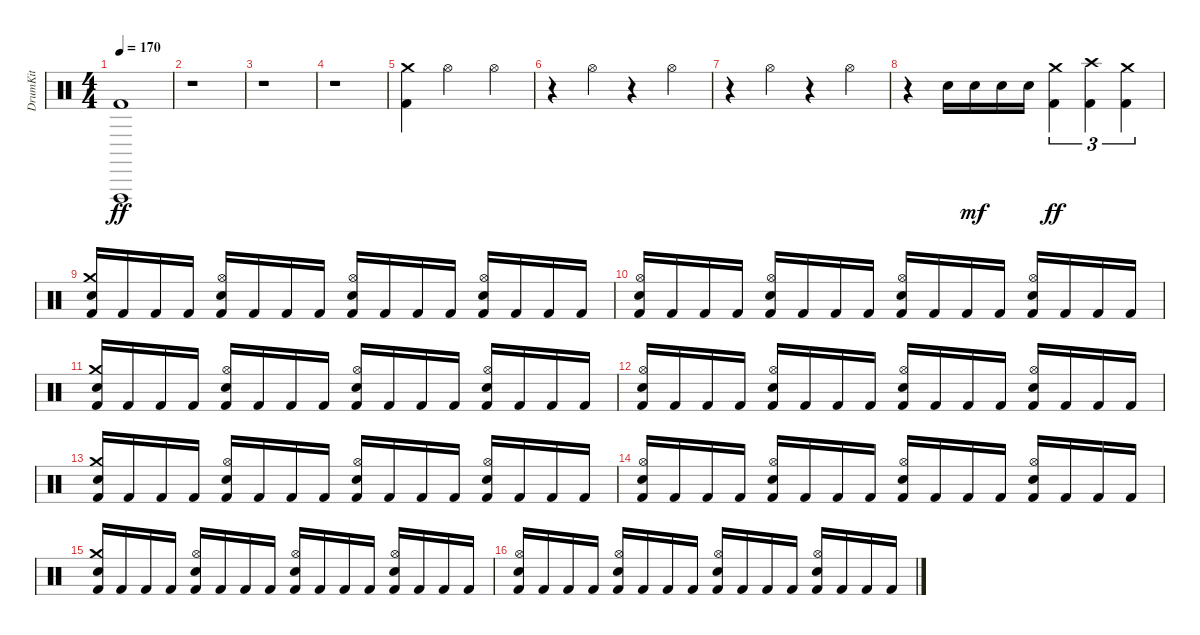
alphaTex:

\track ("DrumKit" "DrumKit") {instrument percussion}
\staff {score}
\articulation defaults
\ts (4 4)
\tempo 170
\clef neutral
\ks c
("Kick (hit) 2" "Vibraslap (hit)").1{dy ff} |
r.1 |
r.1 |
r.1 |
("Kick (hit) 2" "Crash medium (hit)").4 "Hi-Hat (open)".2 "Hi-Hat (open)".4 |
r.4 "Hi-Hat (open)".4 r.4 "Hi-Hat (open)".4 |
r.4 "Hi-Hat (open)".4 r.4 "Hi-Hat (open)".4 |
r.4 "Snare (hit) 2".16 "Snare (hit) 2".16{dy mf} "Snare (hit) 2".16 "Snare (hit) 2".16 ("Kick (hit) 2" "Crash medium (hit)").4{tu (3 2) dy ff} ("Kick (hit) 2" "Crash high (hit)").4{tu (3 2)} ("Kick (hit) 2" "Crash medium (hit)").4{tu (3 2)} |
("Kick (hit) 2" "Snare (hit) 2" "Crash medium (hit)").16 "Kick (hit) 2".16 "Kick (hit) 2".16 "Kick (hit) 2".16 ("Kick (hit) 2" "Snare (hit) 2" "Hi-Hat (open)").16 "Kick (hit) 2".16 "Kick (hit) 2".16 "Kick (hit) 2".16 ("Kick (hit) 2" "Snare (hit) 2" "Hi-Hat (open)").16 "Kick (hit) 2".16 "Kick (hit) 2".16 "Kick (hit) 2".16 ("Kick (hit) 2" "Snare (hit) 2" "Hi-Hat (open)").16 "Kick (hit) 2".16 "Kick (hit) 2".16 "Kick (hit) 2".16 |
("Kick (hit) 2" "Snare (hit) 2" "Hi-Hat (open)").16 "Kick (hit) 2".16 "Kick (hit) 2".16 "Kick (hit) 2".16 ("Kick (hit) 2" "Snare (hit) 2" "Hi-Hat (open)").16 "Kick (hit) 2".16 "Kick (hit) 2".16 "Kick (hit) 2".16 ("Kick (hit) 2" "Snare (hit) 2" "Hi-Hat (open)").16 "Kick (hit) 2".16 "Kick (hit) 2".16 "Kick (hit) 2".16 ("Kick (hit) 2" "Snare (hit) 2" "Hi-Hat (open)").16 "Kick (hit) 2".16 "Kick (hit) 2".16 "Kick (hit) 2".16 |
("Kick (hit) 2" "Snare (hit) 2" "Crash medium (hit)").16 "Kick (hit) 2".16 "Kick (hit) 2".16 "Kick (hit) 2".16 ("Kick (hit) 2" "Snare (hit) 2" "Hi-Hat (open)").16 "Kick (hit) 2".16 "Kick (hit) 2".16 "Kick (hit) 2".16 ("Kick (hit) 2" "Snare (hit) 2" "Hi-Hat (open)").16 "Kick (hit) 2".16 "Kick (hit) 2".16 "Kick (hit) 2".16 ("Kick (hit) 2" "Snare (hit) 2" "Hi-Hat (open)").16 "Kick (hit) 2".16 "Kick (hit) 2".16 "Kick (hit) 2".16 |
("Kick (hit) 2" "Snare (hit) 2" "Hi-Hat (open)").16 "Kick (hit) 2".16 "Kick (hit) 2".16 "Kick (hit) 2".16 ("Kick (hit) 2" "Snare (hit) 2" "Hi-Hat (open)").16 "Kick (hit) 2".16 "Kick (hit) 2".16 "Kick (hit) 2".16 ("Kick (hit) 2" "Snare (hit) 2" "Hi-Hat (open)").16 "Kick (hit) 2".16 "Kick (hit) 2".16 "Kick (hit) 2".16 ("Kick (hit) 2" "Snare (hit) 2" "Hi-Hat (open)").16 "Kick (hit) 2".16 "Kick (hit) 2".16 "Kick (hit) 2".16 |
("Kick (hit) 2" "Snare (hit) 2" "Crash medium (hit)").16 "Kick (hit) 2".16 "Kick (hit) 2".16 "Kick (hit) 2".16 ("Kick (hit) 2" "Snare (hit) 2" "Hi-Hat (open)").16 "Kick (hit) 2".16 "Kick (hit) 2".16 "Kick (hit) 2".16 ("Kick (hit) 2" "Snare (hit) 2" "Hi-Hat (open)").16 "Kick (hit) 2".16 "Kick (hit) 2".16 "Kick (hit) 2".16 ("Kick (hit) 2" "Snare (hit) 2" "Hi-Hat (open)").16 "Kick (hit) 2".16 "Kick (hit) 2".16 "Kick (hit) 2".16 |
("Kick (hit) 2" "Snare (hit) 2" "Hi-Hat (open)").16 "Kick (hit) 2".16 "Kick (hit) 2".16 "Kick (hit) 2".16 ("Kick (hit) 2" "Snare (hit) 2" "Hi-Hat (open)").16 "Kick (hit) 2".16 "Kick (hit) 2".16 "Kick (hit) 2".16 ("Kick (hit) 2" "Snare (hit) 2" "Hi-Hat (open)").16 "Kick (hit) 2".16 "Kick (hit) 2".16 "Kick (hit) 2".16 ("Kick (hit) 2" "Snare (hit) 2" "Hi-Hat (open)").16 "Kick (hit) 2".16 "Kick (hit) 2".16 "Kick (hit) 2".16 |
("Kick (hit) 2" "Snare (hit) 2" "Crash medium (hit)").16 "Kick (hit) 2".16 "Kick (hit) 2".16 "Kick (hit) 2".16 ("Kick (hit) 2" "Snare (hit) 2" "Hi-Hat (open)").16 "Kick (hit) 2".16 "Kick (hit) 2".16 "Kick (hit) 2".16 ("Kick (hit) 2" "Snare (hit) 2" "Hi-Hat (open)").16 "Kick (hit) 2".16 "Kick (hit) 2".16 "Kick (hit) 2".16 ("Kick (hit) 2" "Snare (hit) 2" "Hi-Hat (open)").16 "Kick (hit) 2".16 "Kick (hit) 2".16 "Kick (hit) 2".16 |
("Kick (hit) 2" "Snare (hit) 2" "Hi-Hat (open)").16 "Kick (hit) 2".16 "Kick (hit) 2".16 "Kick (hit) 2".16 ("Kick (hit) 2" "Snare (hit) 2" "Hi-Hat (open)").16 "Kick (hit) 2".16 "Kick (hit) 2".16 "Kick (hit) 2".16 ("Kick (hit) 2" "Snare (hit) 2" "Hi-Hat (open)").16 "Kick (hit) 2".16 "Kick (hit) 2".16 "Kick (hit) 2".16 ("Kick (hit) 2" "Snare (hit) 2" "Hi-Hat (open)").16 "Kick (hit) 2".16 "Kick (hit) 2".16 "Kick (hit) 2".16
